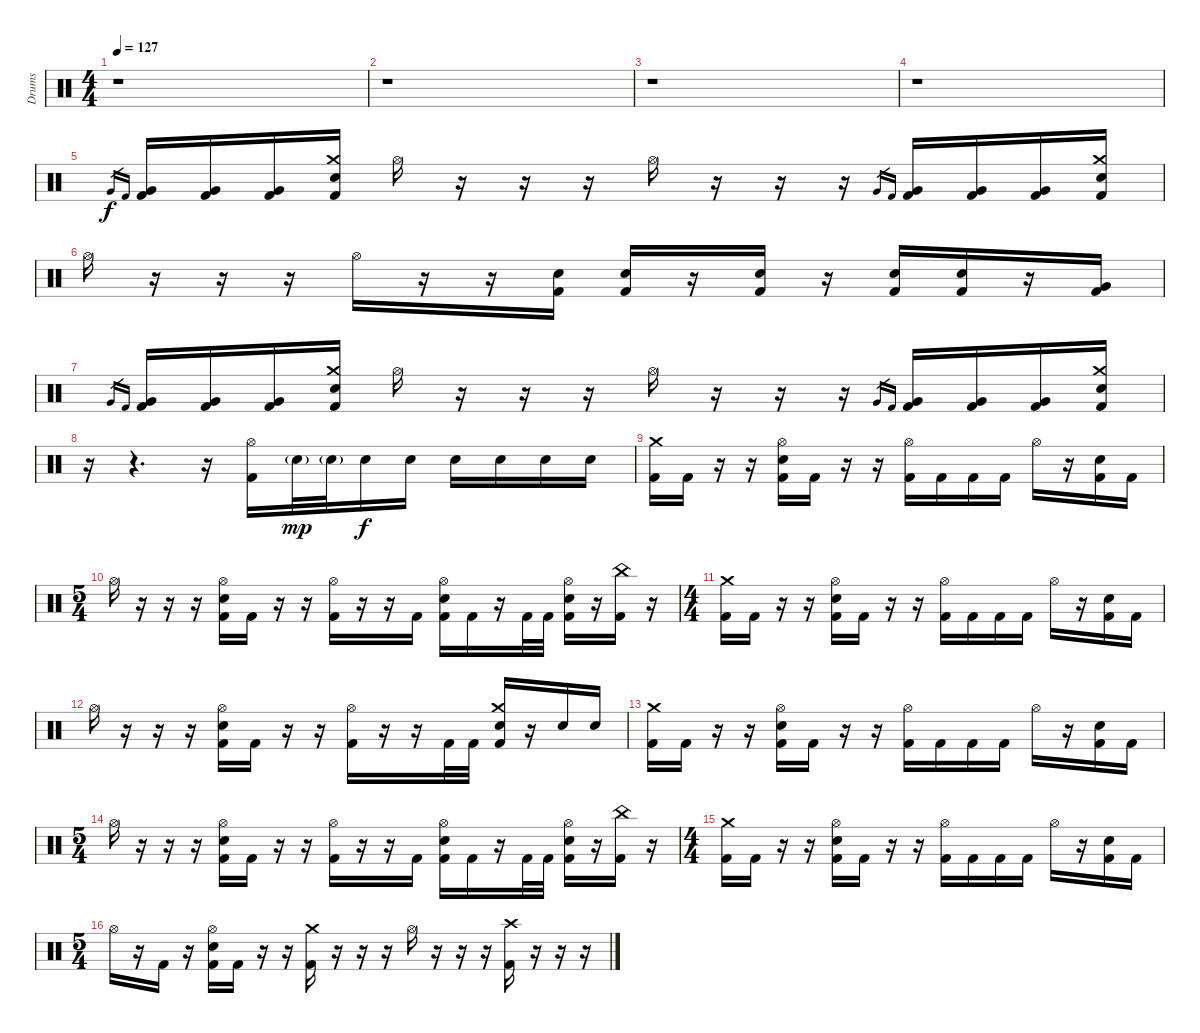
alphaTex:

\track ("Drums" "Drums") {instrument percussion}
\staff {score}
\articulation defaults
\ts (4 4)
\tempo 127
\clef neutral
\ks c
r.1{dy f} |
r.1 |
r.1 |
r.1 |
\section ("" "")
"Very Low Tom (hit)".16{gr} "Kick (hit) 2".16{gr} ("Very Low Tom (hit)" "Kick (hit) 2").16 ("Very Low Tom (hit)" "Kick (hit) 2").16 ("Very Low Tom (hit)" "Kick (hit) 2").16 ("Crash medium (hit)" "Electric Snare (hit)" "Kick (hit) 2").16 "Hi-Hat (open)".16 r.16 r.16 r.16 "Hi-Hat (open)".16 r.16 r.16 r.16 "Very Low Tom (hit)".16{gr} "Kick (hit) 2".16{gr} ("Very Low Tom (hit)" "Kick (hit) 2").16 ("Very Low Tom (hit)" "Kick (hit) 2").16 ("Very Low Tom (hit)" "Kick (hit) 2").16 ("Crash medium (hit)" "Electric Snare (hit)" "Kick (hit) 2").16 |
"Hi-Hat (open)".16 r.16 r.16 r.16 "Hi-Hat (open)".16 r.16 r.16 ("Electric Snare (hit)" "Kick (hit) 2").16 ("Electric Snare (hit)" "Kick (hit) 2").16 r.16 ("Electric Snare (hit)" "Kick (hit) 2").16 r.16 ("Electric Snare (hit)" "Kick (hit) 2").16 ("Electric Snare (hit)" "Kick (hit) 2").16 r.16 ("Very Low Tom (hit)" "Kick (hit) 2").16 |
"Very Low Tom (hit)".16{gr} "Kick (hit) 2".16{gr} ("Very Low Tom (hit)" "Kick (hit) 2").16 ("Very Low Tom (hit)" "Kick (hit) 2").16 ("Very Low Tom (hit)" "Kick (hit) 2").16 ("Crash medium (hit)" "Electric Snare (hit)" "Kick (hit) 2").16 "Hi-Hat (open)".16 r.16 r.16 r.16 "Hi-Hat (open)".16 r.16 r.16 r.16 "Very Low Tom (hit)".16{gr} "Kick (hit) 2".16{gr} ("Very Low Tom (hit)" "Kick (hit) 2").16 ("Very Low Tom (hit)" "Kick (hit) 2").16 ("Very Low Tom (hit)" "Kick (hit) 2").16 ("Crash medium (hit)" "Electric Snare (hit)" "Kick (hit) 2").16 |
r.16 r.4{d volume 0} r.16 ("Hi-Hat (open)" "Kick (hit) 2").16{volume 16} "Electric Snare (hit)"{g}.32{dy mp} "Electric Snare (hit)"{g}.32 "Electric Snare (hit)".16{dy f} "Electric Snare (hit)".16 "Electric Snare (hit)".16 "Electric Snare (hit)".16 "Electric Snare (hit)".16 "Electric Snare (hit)".16 |
\section ("" "")
("Crash medium (hit)" "Kick (hit) 2").16 "Kick (hit) 2".16 r.16 r.16 ("Hi-Hat (open)" "Electric Snare (hit)" "Kick (hit) 2").16 "Kick (hit) 2".16 r.16 r.16 ("Hi-Hat (open)" "Kick (hit) 2").16 "Kick (hit) 2".16 "Kick (hit) 2".16 "Kick (hit) 2".16 "Hi-Hat (open)".16 r.16 ("Electric Snare (hit)" "Kick (hit) 2").16 "Kick (hit) 2".16 |
\ts (5 4)
"Hi-Hat (open)".16 r.16 r.16 r.16 ("Hi-Hat (open)" "Electric Snare (hit)" "Kick (hit) 2").16 "Kick (hit) 2".16 r.16 r.16 ("Hi-Hat (open)" "Kick (hit) 2").16 r.16 r.16 "Kick (hit) 2".16 ("Hi-Hat (open)" "Electric Snare (hit)" "Kick (hit) 2").16 "Kick (hit) 2".16 r.16 "Kick (hit) 2".32 "Kick (hit) 2".32 ("Hi-Hat (open)" "Electric Snare (hit)" "Kick (hit) 2").16 r.16 ("China (hit)" "Kick (hit) 2").16 r.16 |
\ts (4 4)
("Crash medium (hit)" "Kick (hit) 2").16 "Kick (hit) 2".16 r.16 r.16 ("Hi-Hat (open)" "Electric Snare (hit)" "Kick (hit) 2").16 "Kick (hit) 2".16 r.16 r.16 ("Hi-Hat (open)" "Kick (hit) 2").16 "Kick (hit) 2".16 "Kick (hit) 2".16 "Kick (hit) 2".16 "Hi-Hat (open)".16 r.16 ("Electric Snare (hit)" "Kick (hit) 2").16 "Kick (hit) 2".16 |
"Hi-Hat (open)".16 r.16 r.16 r.16 ("Hi-Hat (open)" "Electric Snare (hit)" "Kick (hit) 2").16 "Kick (hit) 2".16 r.16 r.16 ("Hi-Hat (open)" "Kick (hit) 2").16 r.16 r.16 "Kick (hit) 2".32 "Kick (hit) 2".32 ("Crash medium (hit)" "Electric Snare (hit)" "Kick (hit) 2").16 r.16 "Electric Snare (hit)".16 "Electric Snare (hit)".16 |
("Crash medium (hit)" "Kick (hit) 2").16 "Kick (hit) 2".16 r.16 r.16 ("Hi-Hat (open)" "Electric Snare (hit)" "Kick (hit) 2").16 "Kick (hit) 2".16 r.16 r.16 ("Hi-Hat (open)" "Kick (hit) 2").16 "Kick (hit) 2".16 "Kick (hit) 2".16 "Kick (hit) 2".16 "Hi-Hat (open)".16 r.16 ("Electric Snare (hit)" "Kick (hit) 2").16 "Kick (hit) 2".16 |
\ts (5 4)
"Hi-Hat (open)".16 r.16 r.16 r.16 ("Hi-Hat (open)" "Electric Snare (hit)" "Kick (hit) 2").16 "Kick (hit) 2".16 r.16 r.16 ("Hi-Hat (open)" "Kick (hit) 2").16 r.16 r.16 "Kick (hit) 2".16 ("Hi-Hat (open)" "Electric Snare (hit)" "Kick (hit) 2").16 "Kick (hit) 2".16 r.16 "Kick (hit) 2".32 "Kick (hit) 2".32 ("Hi-Hat (open)" "Electric Snare (hit)" "Kick (hit) 2").16 r.16 ("China (hit)" "Kick (hit) 2").16 r.16 |
\ts (4 4)
("Crash medium (hit)" "Kick (hit) 2").16 "Kick (hit) 2".16 r.16 r.16 ("Hi-Hat (open)" "Electric Snare (hit)" "Kick (hit) 2").16 "Kick (hit) 2".16 r.16 r.16 ("Hi-Hat (open)" "Kick (hit) 2").16 "Kick (hit) 2".16 "Kick (hit) 2".16 "Kick (hit) 2".16 "Hi-Hat (open)".16 r.16 ("Electric Snare (hit)" "Kick (hit) 2").16 "Kick (hit) 2".16 |
\ts (5 4)
"Hi-Hat (open)".16 r.16 "Kick (hit) 2".16 r.16 ("Hi-Hat (open)" "Electric Snare (hit)" "Kick (hit) 2").16 "Kick (hit) 2".16 r.16 r.16 ("Crash medium (hit)" "Kick (hit) 2").16 r.16 r.16 r.16 "Hi-Hat (open)".16 r.16 r.16 r.16 ("Crash high (hit)" "Kick (hit) 2").16 r.16 r.16 r.16
